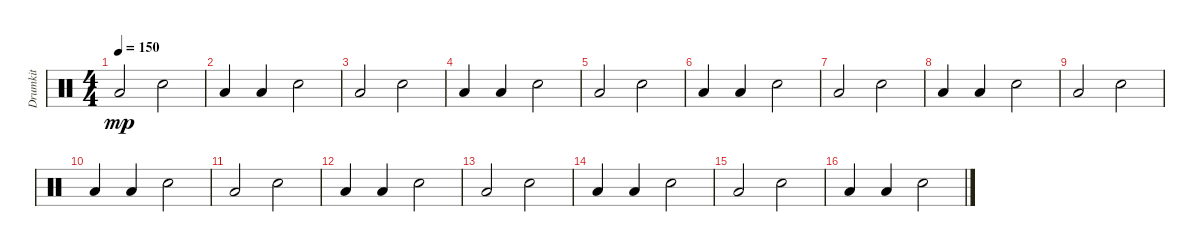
\track ("Drumkit" "Drumkit") {instrument percussion}
\staff {score}
\articulation defaults
\ts (4 4)
\tempo 150
\clef neutral
\ks c "Low Floor Tom (hit)".2{dy mp} "Snare (hit) 2".2
|
"Low Floor Tom (hit)".4 "Low Floor Tom (hit)".4 "Snare (hit) 2".2 |
"Low Floor Tom (hit)".2 "Snare (hit) 2".2 |
"Low Floor Tom (hit)".4 "Low Floor Tom (hit)".4 "Snare (hit) 2".2 |
"Low Floor Tom (hit)".2 "Snare (hit) 2".2 |
"Low Floor Tom (hit)".4 "Low Floor Tom (hit)".4 "Snare (hit) 2".2 |
"Low Floor Tom (hit)".2 "Snare (hit) 2".2 |
"Low Floor Tom (hit)".4 "Low Floor Tom (hit)".4 "Snare (hit) 2".2 |
"Low Floor Tom (hit)".2 "Snare (hit) 2".2 |
"Low Floor Tom (hit)".4 "Low Floor Tom (hit)".4 "Snare (hit) 2".2 |
"Low Floor Tom (hit)".2 "Snare (hit) 2".2 |
"Low Floor Tom (hit)".4 "Low Floor Tom (hit)".4 "Snare (hit) 2".2 |
"Low Floor Tom (hit)".2 "Snare (hit) 2".2 |
"Low Floor Tom (hit)".4 "Low Floor Tom (hit)".4 "Snare (hit) 2".2 |
"Low Floor Tom (hit)".2 "Snare (hit) 2".2 |
"Low Floor Tom (hit)".4 "Low Floor Tom (hit)".4 "Snare (hit) 2".2
